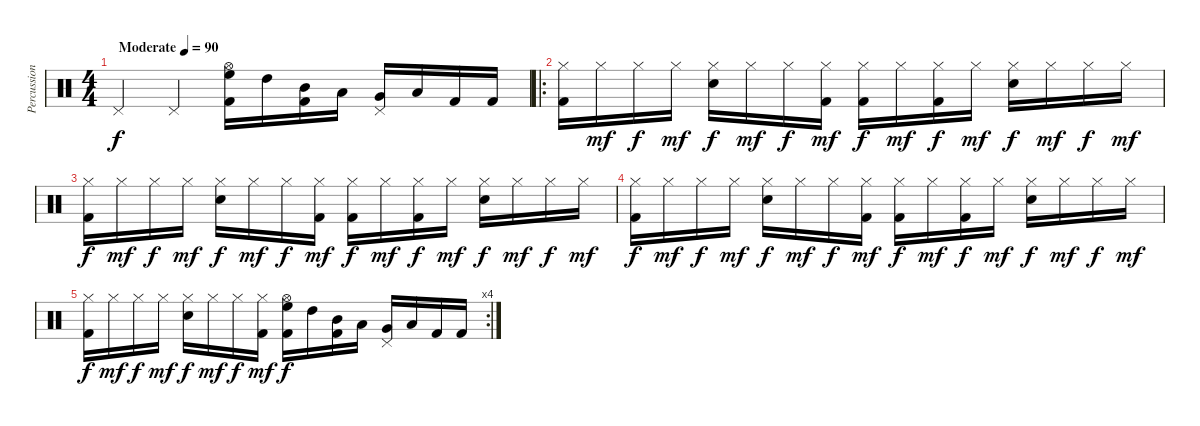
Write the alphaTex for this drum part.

\track ("Percussion" "Percussion") {instrument percussion}
\staff {score}
\articulation defaults
\ts (4 4)
\tempo (90 "Moderate")
\clef neutral
\ks c "Pedal Hi-Hat (hit)".4{dy f} "Pedal Hi-Hat (hit)".4
("Hi-Hat (open)" "High Floor Tom (hit)" "Kick (hit) 2").16 "High Tom (hit)".16 ("Mid Tom (hit)" "Kick (hit) 2").16 "Low Tom (hit)".16 ("Very Low Tom (hit)" "Pedal Hi-Hat (hit)").16 "Low Floor Tom (hit)".16 "Kick (hit) 2".16 "Kick (hit) 2".16 |
\ro
("Hi-Hat (closed)" "Kick (hit) 2").16 "Hi-Hat (closed)".16{dy mf} "Hi-Hat (closed)".16{dy f} "Hi-Hat (closed)".16{dy mf} ("Hi-Hat (closed)" "Electric Snare (hit)").16{dy f} "Hi-Hat (closed)".16{dy mf} "Hi-Hat (closed)".16{dy f} ("Hi-Hat (closed)" "Kick (hit) 2").16{dy mf} ("Hi-Hat (closed)" "Kick (hit) 2").16{dy f} "Hi-Hat (closed)".16{dy mf} ("Hi-Hat (closed)" "Kick (hit) 2").16{dy f} "Hi-Hat (closed)".16{dy mf} ("Hi-Hat (closed)" "Electric Snare (hit)").16{dy f} "Hi-Hat (closed)".16{dy mf} "Hi-Hat (closed)".16{dy f} "Hi-Hat (closed)".16{dy mf} |
("Hi-Hat (closed)" "Kick (hit) 2").16{dy f} "Hi-Hat (closed)".16{dy mf} "Hi-Hat (closed)".16{dy f} "Hi-Hat (closed)".16{dy mf} ("Hi-Hat (closed)" "Electric Snare (hit)").16{dy f} "Hi-Hat (closed)".16{dy mf} "Hi-Hat (closed)".16{dy f} ("Hi-Hat (closed)" "Kick (hit) 2").16{dy mf} ("Hi-Hat (closed)" "Kick (hit) 2").16{dy f} "Hi-Hat (closed)".16{dy mf} ("Hi-Hat (closed)" "Kick (hit) 2").16{dy f} "Hi-Hat (closed)".16{dy mf} ("Hi-Hat (closed)" "Electric Snare (hit)").16{dy f} "Hi-Hat (closed)".16{dy mf} "Hi-Hat (closed)".16{dy f} "Hi-Hat (closed)".16{dy mf} |
("Hi-Hat (closed)" "Kick (hit) 2").16{dy f} "Hi-Hat (closed)".16{dy mf} "Hi-Hat (closed)".16{dy f} "Hi-Hat (closed)".16{dy mf} ("Hi-Hat (closed)" "Electric Snare (hit)").16{dy f} "Hi-Hat (closed)".16{dy mf} "Hi-Hat (closed)".16{dy f} ("Hi-Hat (closed)" "Kick (hit) 2").16{dy mf} ("Hi-Hat (closed)" "Kick (hit) 2").16{dy f} "Hi-Hat (closed)".16{dy mf} ("Hi-Hat (closed)" "Kick (hit) 2").16{dy f} "Hi-Hat (closed)".16{dy mf} ("Hi-Hat (closed)" "Electric Snare (hit)").16{dy f} "Hi-Hat (closed)".16{dy mf} "Hi-Hat (closed)".16{dy f} "Hi-Hat (closed)".16{dy mf} |
\rc 4
("Hi-Hat (closed)" "Kick (hit) 2").16{dy f} "Hi-Hat (closed)".16{dy mf} "Hi-Hat (closed)".16{dy f} "Hi-Hat (closed)".16{dy mf} ("Hi-Hat (closed)" "Electric Snare (hit)").16{dy f} "Hi-Hat (closed)".16{dy mf} "Hi-Hat (closed)".16{dy f} ("Hi-Hat (closed)" "Kick (hit) 2").16{dy mf} ("Hi-Hat (open)" "High Floor Tom (hit)" "Kick (hit) 2").16{dy f} "High Tom (hit)".16 ("Mid Tom (hit)" "Kick (hit) 2").16 "Low Tom (hit)".16 ("Very Low Tom (hit)" "Pedal Hi-Hat (hit)").16 "Low Floor Tom (hit)".16 "Kick (hit) 2".16 "Kick (hit) 2".16
